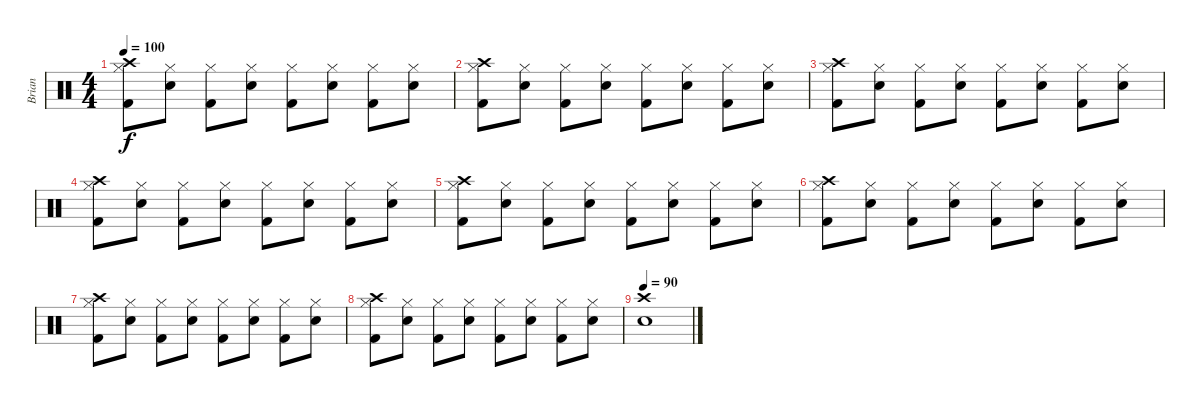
\track ("Brian" "Brian") {instrument percussion}
\staff {score}
\articulation defaults
\ts (4 4)
\tempo 100
\clef neutral
\ks c
("Crash high (hit)" "Hi-Hat (closed)" "Kick (hit) 2").8{dy f} ("Hi-Hat (closed)" "Electric Snare (hit)").8 ("Hi-Hat (closed)" "Kick (hit) 2").8 ("Hi-Hat (closed)" "Electric Snare (hit)").8 ("Hi-Hat (closed)" "Kick (hit) 2").8 ("Hi-Hat (closed)" "Electric Snare (hit)").8 ("Hi-Hat (closed)" "Kick (hit) 2").8 ("Hi-Hat (closed)" "Electric Snare (hit)").8 |
("Crash high (hit)" "Hi-Hat (closed)" "Kick (hit) 2").8 ("Hi-Hat (closed)" "Electric Snare (hit)").8 ("Hi-Hat (closed)" "Kick (hit) 2").8 ("Hi-Hat (closed)" "Electric Snare (hit)").8 ("Hi-Hat (closed)" "Kick (hit) 2").8 ("Hi-Hat (closed)" "Electric Snare (hit)").8 ("Hi-Hat (closed)" "Kick (hit) 2").8 ("Hi-Hat (closed)" "Electric Snare (hit)").8 |
("Crash high (hit)" "Hi-Hat (closed)" "Kick (hit) 2").8 ("Hi-Hat (closed)" "Electric Snare (hit)").8 ("Hi-Hat (closed)" "Kick (hit) 2").8 ("Hi-Hat (closed)" "Electric Snare (hit)").8 ("Hi-Hat (closed)" "Kick (hit) 2").8 ("Hi-Hat (closed)" "Electric Snare (hit)").8 ("Hi-Hat (closed)" "Kick (hit) 2").8 ("Hi-Hat (closed)" "Electric Snare (hit)").8 |
("Crash high (hit)" "Hi-Hat (closed)" "Kick (hit) 2").8 ("Hi-Hat (closed)" "Electric Snare (hit)").8 ("Hi-Hat (closed)" "Kick (hit) 2").8 ("Hi-Hat (closed)" "Electric Snare (hit)").8 ("Hi-Hat (closed)" "Kick (hit) 2").8 ("Hi-Hat (closed)" "Electric Snare (hit)").8 ("Hi-Hat (closed)" "Kick (hit) 2").8 ("Hi-Hat (closed)" "Electric Snare (hit)").8 |
("Crash high (hit)" "Hi-Hat (closed)" "Kick (hit) 2").8 ("Hi-Hat (closed)" "Electric Snare (hit)").8 ("Hi-Hat (closed)" "Kick (hit) 2").8 ("Hi-Hat (closed)" "Electric Snare (hit)").8 ("Hi-Hat (closed)" "Kick (hit) 2").8 ("Hi-Hat (closed)" "Electric Snare (hit)").8 ("Hi-Hat (closed)" "Kick (hit) 2").8 ("Hi-Hat (closed)" "Electric Snare (hit)").8 |
("Crash high (hit)" "Hi-Hat (closed)" "Kick (hit) 2").8 ("Hi-Hat (closed)" "Electric Snare (hit)").8 ("Hi-Hat (closed)" "Kick (hit) 2").8 ("Hi-Hat (closed)" "Electric Snare (hit)").8 ("Hi-Hat (closed)" "Kick (hit) 2").8 ("Hi-Hat (closed)" "Electric Snare (hit)").8 ("Hi-Hat (closed)" "Kick (hit) 2").8 ("Hi-Hat (closed)" "Electric Snare (hit)").8 |
("Crash high (hit)" "Hi-Hat (closed)" "Kick (hit) 2").8 ("Hi-Hat (closed)" "Electric Snare (hit)").8 ("Hi-Hat (closed)" "Kick (hit) 2").8 ("Hi-Hat (closed)" "Electric Snare (hit)").8 ("Hi-Hat (closed)" "Kick (hit) 2").8 ("Hi-Hat (closed)" "Electric Snare (hit)").8 ("Hi-Hat (closed)" "Kick (hit) 2").8 ("Hi-Hat (closed)" "Electric Snare (hit)").8 |
("Crash high (hit)" "Hi-Hat (closed)" "Kick (hit) 2").8 ("Hi-Hat (closed)" "Electric Snare (hit)").8 ("Hi-Hat (closed)" "Kick (hit) 2").8 ("Hi-Hat (closed)" "Electric Snare (hit)").8 ("Hi-Hat (closed)" "Kick (hit) 2").8 ("Hi-Hat (closed)" "Electric Snare (hit)").8 ("Hi-Hat (closed)" "Kick (hit) 2").8 ("Hi-Hat (closed)" "Electric Snare (hit)").8 |
\tempo 90
("Crash high (hit)" "Electric Snare (hit)").1
